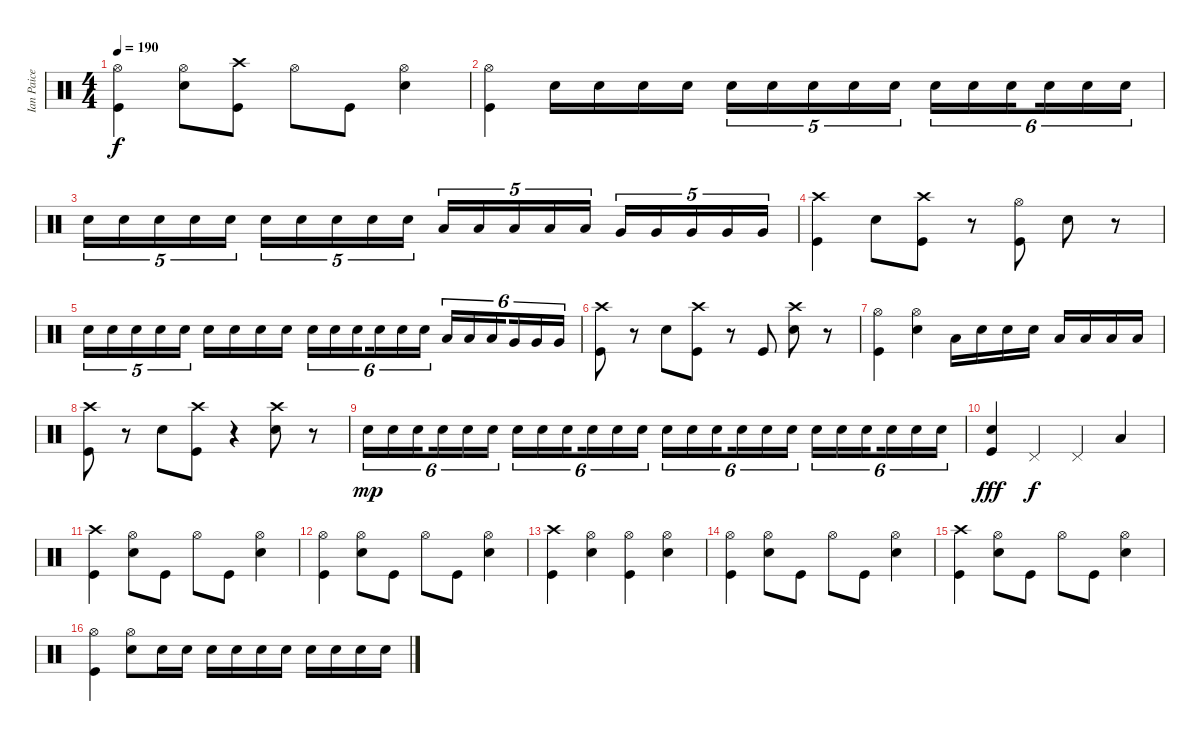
\track ("Ian Paice" "Ian Paice") {instrument percussion}
\staff {score}
\articulation defaults
\ts (4 4)
\tempo 190
\clef neutral
\ks c
("Hi-Hat (open)" "Kick (hit)").4{dy f} ("Hi-Hat (open)" "Snare (hit) 2").8 ("Crash high (hit)" "Kick (hit)").8 "Hi-Hat (open)".8 "Kick (hit)".8 ("Hi-Hat (open)" "Snare (hit) 2").4 |
("Hi-Hat (open)" "Kick (hit)").4 "Snare (hit) 2".16 "Snare (hit) 2".16 "Snare (hit) 2".16 "Snare (hit) 2".16 "Snare (hit) 2".16{tu (5 4)} "Snare (hit) 2".16{tu (5 4)} "Snare (hit) 2".16{tu (5 4)} "Snare (hit) 2".16{tu (5 4)} "Snare (hit) 2".16{tu (5 4)} "Snare (hit) 2".16{tu (6 4)} "Snare (hit) 2".16{tu (6 4)} "Snare (hit) 2".16{tu (6 4) beam splitsecondary} "Snare (hit) 2".16{tu (6 4)} "Snare (hit) 2".16{tu (6 4)} "Snare (hit) 2".16{tu (6 4)} |
"Snare (hit) 2".16{tu (5 4)} "Snare (hit) 2".16{tu (5 4)} "Snare (hit) 2".16{tu (5 4)} "Snare (hit) 2".16{tu (5 4)} "Snare (hit) 2".16{tu (5 4)} "Snare (hit) 2".16{tu (5 4)} "Snare (hit) 2".16{tu (5 4)} "Snare (hit) 2".16{tu (5 4)} "Snare (hit) 2".16{tu (5 4)} "Snare (hit) 2".16{tu (5 4)} "Low Tom (hit)".16{tu (5 4)} "Low Tom (hit)".16{tu (5 4)} "Low Tom (hit)".16{tu (5 4)} "Low Tom (hit)".16{tu (5 4)} "Low Tom (hit)".16{tu (5 4)} "Very Low Tom (hit)".16{tu (5 4)} "Very Low Tom (hit)".16{tu (5 4)} "Very Low Tom (hit)".16{tu (5 4)} "Very Low Tom (hit)".16{tu (5 4)} "Very Low Tom (hit)".16{tu (5 4)} |
("Crash high (hit)" "Kick (hit)").4 "Snare (hit) 2".8 ("Crash high (hit)" "Kick (hit)").8 r.8 ("Hi-Hat (open)" "Kick (hit)").8 "Snare (hit) 2".8 r.8 |
"Snare (hit) 2".16{tu (5 4)} "Snare (hit) 2".16{tu (5 4)} "Snare (hit) 2".16{tu (5 4)} "Snare (hit) 2".16{tu (5 4)} "Snare (hit) 2".16{tu (5 4)} "Snare (hit) 2".16 "Snare (hit) 2".16 "Snare (hit) 2".16 "Snare (hit) 2".16 "Snare (hit) 2".16{tu (6 4)} "Snare (hit) 2".16{tu (6 4)} "Snare (hit) 2".16{tu (6 4) beam splitsecondary} "Snare (hit) 2".16{tu (6 4)} "Snare (hit) 2".16{tu (6 4)} "Snare (hit) 2".16{tu (6 4)} "Low Tom (hit)".16{tu (6 4)} "Low Tom (hit)".16{tu (6 4)} "Low Tom (hit)".16{tu (6 4) beam splitsecondary} "Very Low Tom (hit)".16{tu (6 4)} "Very Low Tom (hit)".16{tu (6 4)} "Very Low Tom (hit)".16{tu (6 4)} |
("Crash high (hit)" "Kick (hit)").8 r.8 "Snare (hit) 2".8 ("Kick (hit)" "Crash high (hit)").8 r.8 "Kick (hit)".8 ("Crash high (hit)" "Snare (hit) 2").8 r.8 |
("Hi-Hat (open)" "Kick (hit)").4 ("Hi-Hat (open)" "Snare (hit) 2").4 "Low Tom (hit)".16 "Snare (hit) 2".16 "Snare (hit) 2".16 "Snare (hit) 2".16 "Low Tom (hit)".16 "Low Tom (hit)".16 "Low Tom (hit)".16 "Low Tom (hit)".16 |
("Crash high (hit)" "Kick (hit)").8 r.8 "Snare (hit) 2".8 ("Crash high (hit)" "Kick (hit)").8 r.4 ("Crash high (hit)" "Snare (hit) 2").8 r.8 |
"Snare (hit) 2".16{tu (6 4) dy mp} "Snare (hit) 2".16{tu (6 4)} "Snare (hit) 2".16{tu (6 4) beam splitsecondary} "Snare (hit) 2".16{tu (6 4)} "Snare (hit) 2".16{tu (6 4)} "Snare (hit) 2".16{tu (6 4)} "Snare (hit) 2".16{tu (6 4)} "Snare (hit) 2".16{tu (6 4)} "Snare (hit) 2".16{tu (6 4) beam splitsecondary} "Snare (hit) 2".16{tu (6 4)} "Snare (hit) 2".16{tu (6 4)} "Snare (hit) 2".16{tu (6 4)} "Snare (hit) 2".16{tu (6 4)} "Snare (hit) 2".16{tu (6 4)} "Snare (hit) 2".16{tu (6 4) beam splitsecondary} "Snare (hit) 2".16{tu (6 4)} "Snare (hit) 2".16{tu (6 4)} "Snare (hit) 2".16{tu (6 4)} "Snare (hit) 2".16{tu (6 4)} "Snare (hit) 2".16{tu (6 4)} "Snare (hit) 2".16{tu (6 4) beam splitsecondary} "Snare (hit) 2".16{tu (6 4)} "Snare (hit) 2".16{tu (6 4)} "Snare (hit) 2".16{tu (6 4)} |
("Snare (hit) 2" "Kick (hit)").4{dy fff} "Pedal Hi-Hat (hit)".4{dy f} "Pedal Hi-Hat (hit)".4 "Low Tom (hit)".4 |
("Crash high (hit)" "Kick (hit)").4 ("Hi-Hat (open)" "Snare (hit) 2").8 "Kick (hit)".8 "Hi-Hat (open)".8 "Kick (hit)".8 ("Hi-Hat (open)" "Snare (hit) 2").4 |
("Kick (hit)" "Hi-Hat (open)").4 ("Snare (hit) 2" "Hi-Hat (open)").8 "Kick (hit)".8 "Hi-Hat (open)".8 "Kick (hit)".8 ("Snare (hit) 2" "Hi-Hat (open)").4 |
("Kick (hit)" "Crash high (hit)").4 ("Snare (hit) 2" "Hi-Hat (open)").4 ("Kick (hit)" "Hi-Hat (open)").4 ("Hi-Hat (open)" "Snare (hit) 2").4 |
("Kick (hit)" "Hi-Hat (open)").4 ("Hi-Hat (open)" "Snare (hit) 2").8 "Kick (hit)".8 "Hi-Hat (open)".8 "Kick (hit)".8 ("Hi-Hat (open)" "Snare (hit) 2").4 |
("Crash high (hit)" "Kick (hit)").4 ("Hi-Hat (open)" "Snare (hit) 2").8 "Kick (hit)".8 "Hi-Hat (open)".8 "Kick (hit)".8 ("Hi-Hat (open)" "Snare (hit) 2").4 |
("Hi-Hat (open)" "Kick (hit)").4 ("Snare (hit) 2" "Hi-Hat (open)").8 "Snare (hit) 2".16 "Snare (hit) 2".16 "Snare (hit) 2".16 "Snare (hit) 2".16 "Snare (hit) 2".16 "Snare (hit) 2".16 "Snare (hit) 2".16 "Snare (hit) 2".16 "Snare (hit) 2".16 "Snare (hit) 2".16
